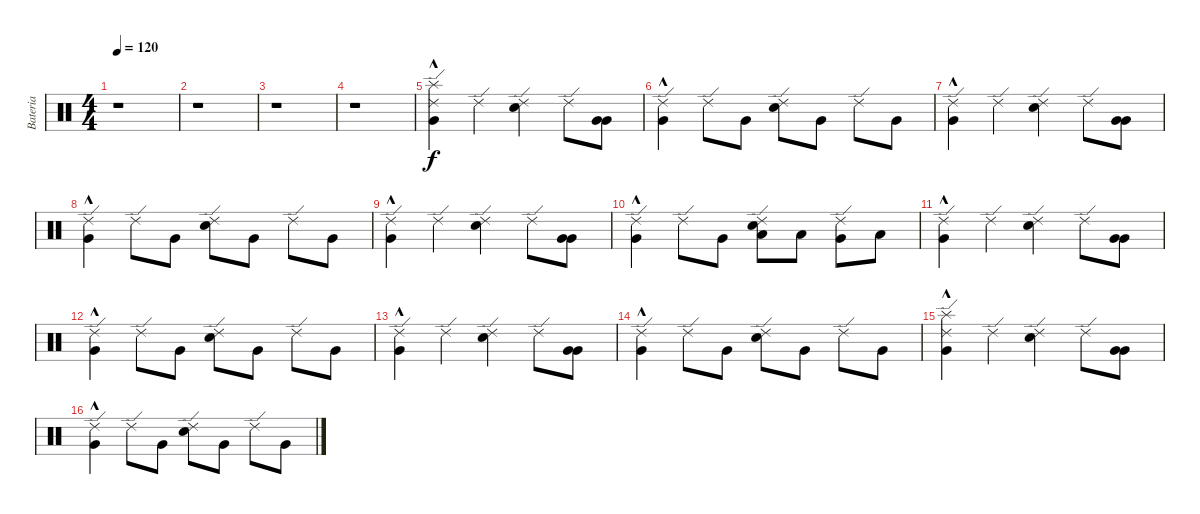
\track ("Bateria" "Bateria") {instrument percussion}
\staff {score}
\articulation defaults
\ts (4 4)
\tempo 120
\clef neutral
\ks c
r.1{dy f} |
r.1 |
r.1 |
r.1 |
("Splash (hit)" "Ride (edge) 2" "Very Low Tom (hit)"{hac}).4 "Ride (edge) 2".4 ("Ride (edge) 2" "Snare (hit) 2").4 "Ride (edge) 2".8 ("Very Low Tom (hit)" "Very Low Tom (hit)").8 |
("Ride (edge) 2" "Very Low Tom (hit)"{hac}).4 "Ride (edge) 2".8 "Very Low Tom (hit)".8 ("Snare (hit) 2" "Ride (edge) 2").8 "Very Low Tom (hit)".8 "Ride (edge) 2".8 "Very Low Tom (hit)".8 |
("Ride (edge) 2" "Very Low Tom (hit)"{hac}).4 "Ride (edge) 2".4 ("Ride (edge) 2" "Snare (hit) 2").4 "Ride (edge) 2".8 ("Very Low Tom (hit)" "Very Low Tom (hit)").8 |
("Ride (edge) 2" "Very Low Tom (hit)"{hac}).4 "Ride (edge) 2".8 "Very Low Tom (hit)".8 ("Snare (hit) 2" "Ride (edge) 2").8 "Very Low Tom (hit)".8 "Ride (edge) 2".8 "Very Low Tom (hit)".8 |
("Ride (edge) 2" "Very Low Tom (hit)"{hac}).4 "Ride (edge) 2".4 ("Ride (edge) 2" "Snare (hit) 2").4 "Ride (edge) 2".8 ("Very Low Tom (hit)" "Very Low Tom (hit)").8 |
("Ride (edge) 2" "Very Low Tom (hit)"{hac}).4 "Ride (edge) 2".8 "Very Low Tom (hit)".8 ("Low Tom (hit)" "Snare (hit) 2" "Ride (edge) 2").8 "Low Tom (hit)".8 ("Very Low Tom (hit)" "Ride (edge) 2").8 "Low Floor Tom (hit)".8 |
("Ride (edge) 2" "Very Low Tom (hit)"{hac}).4 "Ride (edge) 2".4 ("Ride (edge) 2" "Snare (hit) 2").4 "Ride (edge) 2".8 ("Very Low Tom (hit)" "Very Low Tom (hit)").8 |
("Ride (edge) 2" "Very Low Tom (hit)"{hac}).4 "Ride (edge) 2".8 "Very Low Tom (hit)".8 ("Snare (hit) 2" "Ride (edge) 2").8 "Very Low Tom (hit)".8 "Ride (edge) 2".8 "Very Low Tom (hit)".8 |
("Ride (edge) 2" "Very Low Tom (hit)"{hac}).4 "Ride (edge) 2".4 ("Ride (edge) 2" "Snare (hit) 2").4 "Ride (edge) 2".8 ("Very Low Tom (hit)" "Very Low Tom (hit)").8 |
("Ride (edge) 2" "Very Low Tom (hit)"{hac}).4 "Ride (edge) 2".8 "Very Low Tom (hit)".8 ("Snare (hit) 2" "Ride (edge) 2").8 "Very Low Tom (hit)".8 "Ride (edge) 2".8 "Very Low Tom (hit)".8 |
("Splash (hit)" "Ride (edge) 2" "Very Low Tom (hit)"{hac}).4 "Ride (edge) 2".4 ("Ride (edge) 2" "Snare (hit) 2").4 "Ride (edge) 2".8 ("Very Low Tom (hit)" "Very Low Tom (hit)").8 |
("Ride (edge) 2" "Very Low Tom (hit)"{hac}).4 "Ride (edge) 2".8 "Very Low Tom (hit)".8 ("Snare (hit) 2" "Ride (edge) 2").8 "Very Low Tom (hit)".8 "Ride (edge) 2".8 "Very Low Tom (hit)".8
